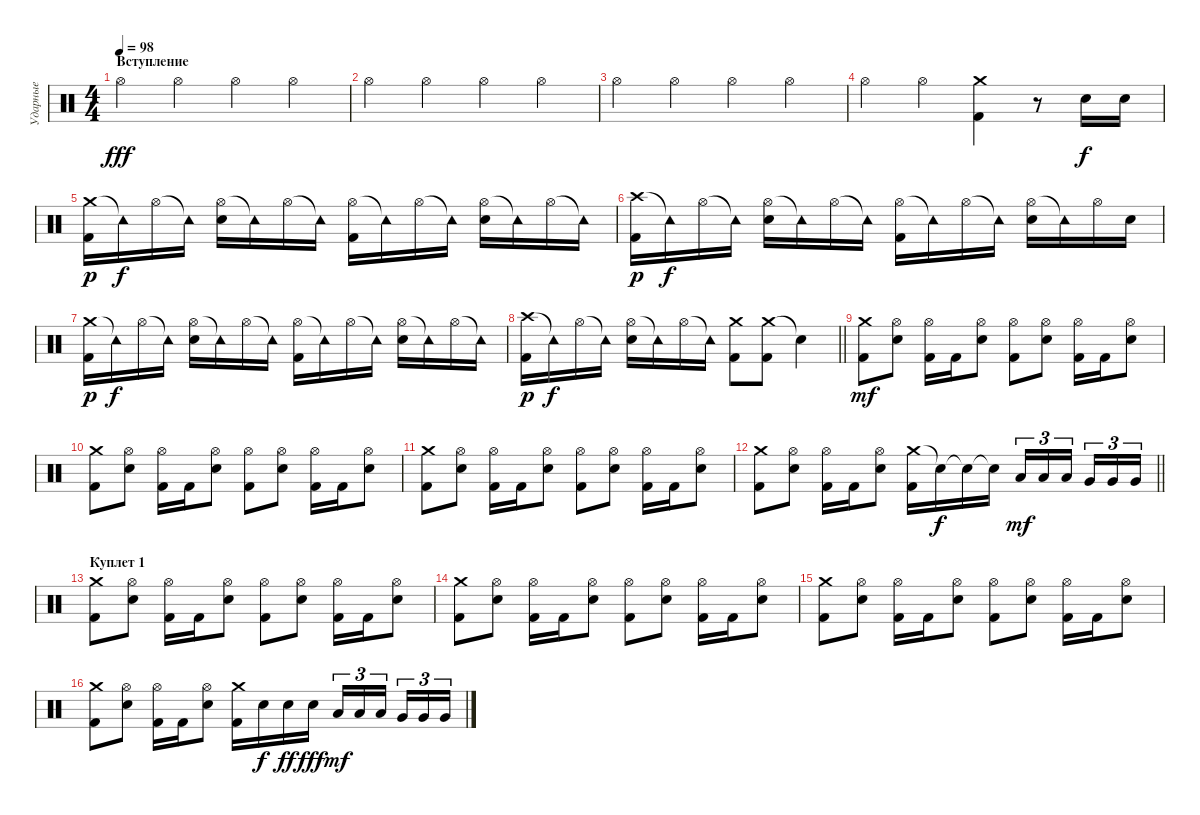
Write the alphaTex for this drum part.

\track ("Ударные" "Ударные") {instrument percussion}
\staff {score}
\articulation defaults
\ts (4 4)
\section ("" "Вступление")
\tempo 98
\clef neutral
\ks c "Hi-Hat (open)".4{dy fff} "Hi-Hat (open)".4 "Hi-Hat (open)".4 "Hi-Hat (open)".4
|
"Hi-Hat (open)".4 "Hi-Hat (open)".4 "Hi-Hat (open)".4 "Hi-Hat (open)".4 |
"Hi-Hat (open)".4 "Hi-Hat (open)".4 "Hi-Hat (open)".4 "Hi-Hat (open)".4 |
"Hi-Hat (open)".4 "Hi-Hat (open)".4 ("Kick (hit) 2" "Crash medium (hit)").4 r.8 "Snare (hit) 2".16{dy f} "Snare (hit) 2".16 |
("Crash medium (hit)" "Kick (hit) 2").16{dy p} "Tambourine (hit)"{t}.16{dy f} "Hi-Hat (open)".16 "Tambourine (hit)"{t}.16 ("Hi-Hat (open)" "Snare (hit) 2").16 "Tambourine (hit)"{t}.16 "Hi-Hat (open)".16 "Tambourine (hit)"{t}.16 ("Hi-Hat (open)" "Kick (hit) 2").16 "Tambourine (hit)"{t}.16 "Hi-Hat (open)".16 "Tambourine (hit)"{t}.16 ("Hi-Hat (open)" "Snare (hit) 2").16 "Tambourine (hit)"{t}.16 "Hi-Hat (open)".16 "Tambourine (hit)"{t}.16 |
("Crash high (hit)" "Kick (hit) 2").16{dy p} "Tambourine (hit)"{t}.16{dy f} "Hi-Hat (open)".16 "Tambourine (hit)"{t}.16 ("Hi-Hat (open)" "Snare (hit) 2").16 "Tambourine (hit)"{t}.16 "Hi-Hat (open)".16 "Tambourine (hit)"{t}.16 ("Hi-Hat (open)" "Kick (hit) 2").16 "Tambourine (hit)"{t}.16 "Hi-Hat (open)".16 "Tambourine (hit)"{t}.16 ("Hi-Hat (open)" "Snare (hit) 2").16 "Tambourine (hit)"{t}.16 "Hi-Hat (open)".16 "Snare (hit) 2".16 |
("Crash medium (hit)" "Kick (hit) 2").16{dy p} "Tambourine (hit)"{t}.16{dy f} "Hi-Hat (open)".16 "Tambourine (hit)"{t}.16 ("Hi-Hat (open)" "Snare (hit) 2").16 "Tambourine (hit)"{t}.16 "Hi-Hat (open)".16 "Tambourine (hit)"{t}.16 ("Hi-Hat (open)" "Kick (hit) 2").16 "Tambourine (hit)"{t}.16 "Hi-Hat (open)".16 "Tambourine (hit)"{t}.16 ("Hi-Hat (open)" "Snare (hit) 2").16 "Tambourine (hit)"{t}.16 "Hi-Hat (open)".16 "Tambourine (hit)"{t}.16 |
\barLineRight lightlight
("Crash high (hit)" "Kick (hit) 2").16{dy p} "Tambourine (hit)"{t}.16{dy f} "Hi-Hat (open)".16 "Tambourine (hit)"{t}.16 ("Hi-Hat (open)" "Snare (hit) 2").16 "Tambourine (hit)"{t}.16 "Hi-Hat (open)".16 "Tambourine (hit)"{t}.16 ("Crash medium (hit)" "Kick (hit) 2").8 ("Crash medium (hit)" "Kick (hit) 2").8 "Snare (hit)"{t}.4 |
("Crash medium (hit)" "Kick (hit) 2").8{dy mf} ("Hi-Hat (open)" "Snare (hit) 2").8 ("Hi-Hat (open)" "Kick (hit) 2").16 "Kick (hit) 2".16 ("Hi-Hat (open)" "Snare (hit) 2").8 ("Hi-Hat (open)" "Kick (hit) 2").8 ("Hi-Hat (open)" "Snare (hit) 2").8 ("Hi-Hat (open)" "Kick (hit) 2").16 "Kick (hit) 2".16 ("Hi-Hat (open)" "Snare (hit) 2").8 |
("Crash medium (hit)" "Kick (hit) 2").8 ("Hi-Hat (open)" "Snare (hit) 2").8 ("Hi-Hat (open)" "Kick (hit) 2").16 "Kick (hit) 2".16 ("Hi-Hat (open)" "Snare (hit) 2").8 ("Hi-Hat (open)" "Kick (hit) 2").8 ("Hi-Hat (open)" "Snare (hit) 2").8 ("Hi-Hat (open)" "Kick (hit) 2").16 "Kick (hit) 2".16 ("Hi-Hat (open)" "Snare (hit) 2").8 |
("Crash medium (hit)" "Kick (hit) 2").8 ("Hi-Hat (open)" "Snare (hit) 2").8 ("Hi-Hat (open)" "Kick (hit) 2").16 "Kick (hit) 2".16 ("Hi-Hat (open)" "Snare (hit) 2").8 ("Hi-Hat (open)" "Kick (hit) 2").8 ("Hi-Hat (open)" "Snare (hit) 2").8 ("Hi-Hat (open)" "Kick (hit) 2").16 "Kick (hit) 2".16 ("Hi-Hat (open)" "Snare (hit) 2").8 |
\barLineRight lightlight
("Crash medium (hit)" "Kick (hit) 2").8 ("Hi-Hat (open)" "Snare (hit) 2").8 ("Hi-Hat (open)" "Kick (hit) 2").16 "Kick (hit) 2".16 ("Hi-Hat (open)" "Snare (hit) 2").8 ("Crash medium (hit)" "Kick (hit) 2").16 "Snare (hit) 2"{t}.16{dy f} "Snare (hit) 2"{t}.16 "Snare (hit) 2"{t}.16 "Low Tom (hit)".16{tu (3 2) dy mf} "Low Tom (hit)".16{tu (3 2)} "Low Tom (hit)".16{tu (3 2) beam splitsecondary} "Very Low Tom (hit)".16{tu (3 2)} "Very Low Tom (hit)".16{tu (3 2)} "Very Low Tom (hit)".16{tu (3 2)} |
\section ("" "Куплет 1")
("Crash medium (hit)" "Kick (hit) 2").8 ("Hi-Hat (open)" "Snare (hit) 2").8 ("Hi-Hat (open)" "Kick (hit) 2").16 "Kick (hit) 2".16 ("Hi-Hat (open)" "Snare (hit) 2").8 ("Hi-Hat (open)" "Kick (hit) 2").8 ("Hi-Hat (open)" "Snare (hit) 2").8 ("Hi-Hat (open)" "Kick (hit) 2").16 "Kick (hit) 2".16 ("Hi-Hat (open)" "Snare (hit) 2").8 |
("Crash medium (hit)" "Kick (hit) 2").8 ("Hi-Hat (open)" "Snare (hit) 2").8 ("Hi-Hat (open)" "Kick (hit) 2").16 "Kick (hit) 2".16 ("Hi-Hat (open)" "Snare (hit) 2").8 ("Hi-Hat (open)" "Kick (hit) 2").8 ("Hi-Hat (open)" "Snare (hit) 2").8 ("Hi-Hat (open)" "Kick (hit) 2").16 "Kick (hit) 2".16 ("Hi-Hat (open)" "Snare (hit) 2").8 |
("Crash medium (hit)" "Kick (hit) 2").8 ("Hi-Hat (open)" "Snare (hit) 2").8 ("Hi-Hat (open)" "Kick (hit) 2").16 "Kick (hit) 2".16 ("Hi-Hat (open)" "Snare (hit) 2").8 ("Hi-Hat (open)" "Kick (hit) 2").8 ("Hi-Hat (open)" "Snare (hit) 2").8 ("Hi-Hat (open)" "Kick (hit) 2").16 "Kick (hit) 2".16 ("Hi-Hat (open)" "Snare (hit) 2").8 |
("Crash medium (hit)" "Kick (hit) 2").8 ("Hi-Hat (open)" "Snare (hit) 2").8 ("Hi-Hat (open)" "Kick (hit) 2").16 "Kick (hit) 2".16 ("Hi-Hat (open)" "Snare (hit) 2").8 ("Crash medium (hit)" "Kick (hit) 2").16 "Snare (hit) 2".16{dy f} "Snare (hit) 2".16{dy ff} "Snare (hit) 2".16{dy fff} "Low Tom (hit)".16{tu (3 2) dy mf} "Low Tom (hit)".16{tu (3 2)} "Low Tom (hit)".16{tu (3 2) beam splitsecondary} "Very Low Tom (hit)".16{tu (3 2)} "Very Low Tom (hit)".16{tu (3 2)} "Very Low Tom (hit)".16{tu (3 2)}
